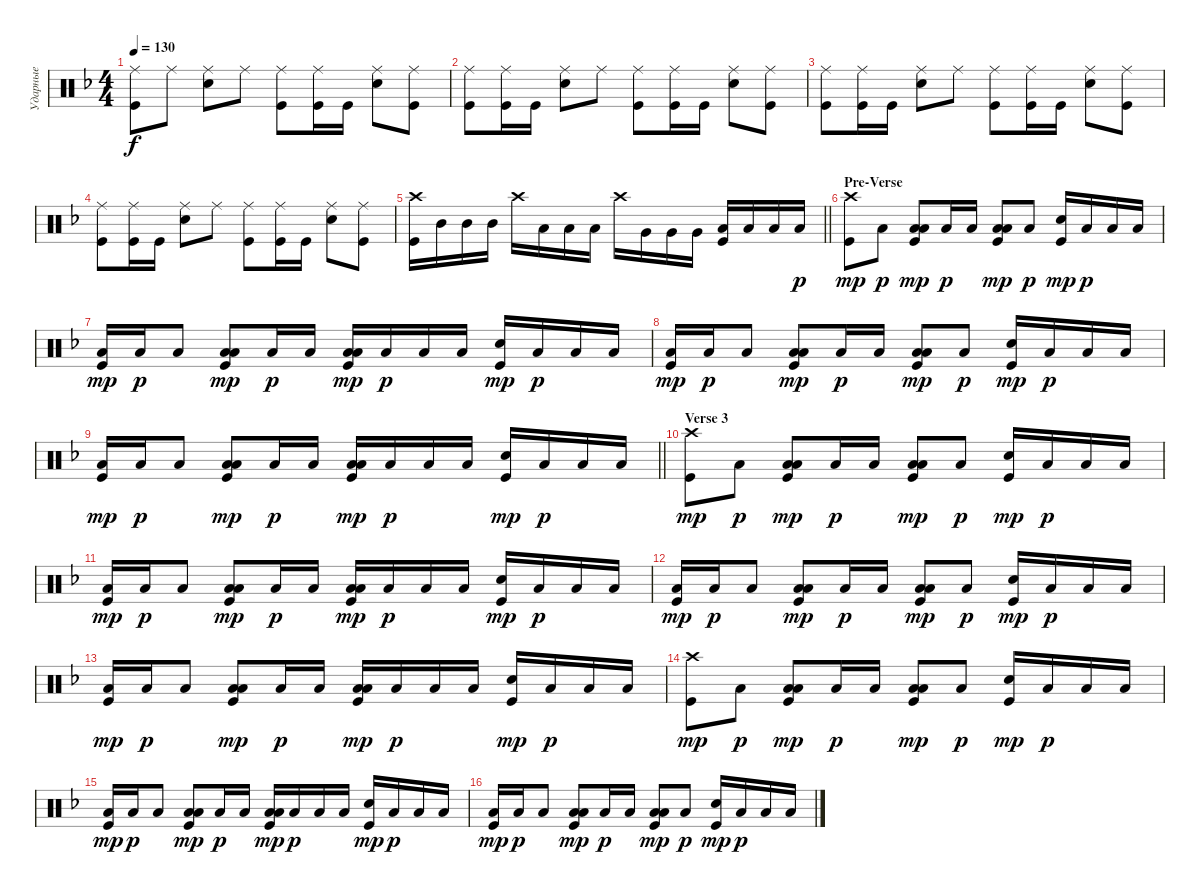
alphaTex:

\track ("Ударные" "Ударные") {instrument percussion}
\staff {score}
\articulation defaults
\ts (4 4)
\tempo 130
\clef neutral
\ks dminor
("Ride (middle)" "Kick (hit)").8{dy f} "Ride (middle)".8 ("Ride (middle)" "Snare (hit) 2").8 "Ride (middle)".8 ("Ride (middle)" "Kick (hit)").8 ("Ride (middle)" "Kick (hit)").16 "Kick (hit)".16 ("Ride (middle)" "Snare (hit) 2").8 ("Ride (middle)" "Kick (hit)").8 |
("Ride (middle)" "Kick (hit)").8 ("Ride (middle)" "Kick (hit)").16 "Kick (hit)".16 ("Ride (middle)" "Snare (hit) 2").8 "Ride (middle)".8 ("Ride (middle)" "Kick (hit)").8 ("Ride (middle)" "Kick (hit)").16 "Kick (hit)".16 ("Ride (middle)" "Snare (hit) 2").8 ("Ride (middle)" "Kick (hit)").8 |
("Ride (middle)" "Kick (hit)").8 ("Ride (middle)" "Kick (hit)").16 "Kick (hit)".16 ("Ride (middle)" "Snare (hit) 2").8 "Ride (middle)".8 ("Ride (middle)" "Kick (hit)").8 ("Ride (middle)" "Kick (hit)").16 "Kick (hit)".16 ("Ride (middle)" "Snare (hit) 2").8 ("Ride (middle)" "Kick (hit)").8 |
("Ride (middle)" "Kick (hit)").8 ("Ride (middle)" "Kick (hit)").16 "Kick (hit)".16 ("Ride (middle)" "Snare (hit) 2").8 "Ride (middle)".8 ("Ride (middle)" "Kick (hit)").8 ("Ride (middle)" "Kick (hit)").16 "Kick (hit)".16 ("Ride (middle)" "Snare (hit) 2").8 ("Ride (middle)" "Kick (hit)").8 |
\barLineRight lightlight
("Kick (hit)" "Crash high (hit)").16 "Mid Tom (hit)".16 "Mid Tom (hit)".16 "Mid Tom (hit)".16 "Crash high (hit)".16 "Low Tom (hit)".16 "Low Tom (hit)".16 "Low Tom (hit)".16 "Crash high (hit)".16 "Very Low Tom (hit)".16 "Very Low Tom (hit)".16 "Very Low Tom (hit)".16 ("Low Floor Tom (hit)" "Kick (hit)").16 "Low Floor Tom (hit)".16 "Low Floor Tom (hit)".16 "Low Floor Tom (hit)".16{dy p} |
\section ("" "Pre-Verse")
("Kick (hit)" "Crash high (hit)").8{dy mp} "Low Tom (hit)".8{dy p} ("Low Tom (hit)" "Kick (hit)" "Low Tom (hit)").8{bd 240 dy mp} "Low Tom (hit)".16{dy p} "Low Tom (hit)".16 ("Low Tom (hit)" "Kick (hit)" "Low Tom (hit)").8{bd 240 dy mp} "Low Tom (hit)".8{dy p} ("Kick (hit)" "Snare (hit) 2").16{dy mp} "Low Tom (hit)".16{dy p} "Low Tom (hit)".16 "Low Tom (hit)".16 |
("Low Tom (hit)" "Kick (hit)").16{dy mp} "Low Tom (hit)".16{dy p} "Low Tom (hit)".8{bd 240} ("Low Tom (hit)" "Kick (hit)" "Low Tom (hit)").8{bd 240 dy mp} "Low Tom (hit)".16{dy p} "Low Tom (hit)".16 ("Low Tom (hit)" "Kick (hit)" "Low Tom (hit)").16{bd 240 dy mp} "Low Tom (hit)".16{dy p} "Low Tom (hit)".16 "Low Tom (hit)".16 ("Kick (hit)" "Snare (hit) 2").16{dy mp} "Low Tom (hit)".16{dy p} "Low Tom (hit)".16 "Low Tom (hit)".16 |
("Low Tom (hit)" "Kick (hit)").16{dy mp} "Low Tom (hit)".16{dy p} "Low Tom (hit)".8{bd 240} ("Low Tom (hit)" "Kick (hit)" "Low Tom (hit)").8{bd 240 dy mp} "Low Tom (hit)".16{dy p} "Low Tom (hit)".16 ("Low Tom (hit)" "Kick (hit)" "Low Tom (hit)").8{bd 240 dy mp} "Low Tom (hit)".8{dy p} ("Kick (hit)" "Snare (hit) 2").16{dy mp} "Low Tom (hit)".16{dy p} "Low Tom (hit)".16 "Low Tom (hit)".16 |
\barLineRight lightlight
("Low Tom (hit)" "Kick (hit)").16{dy mp} "Low Tom (hit)".16{dy p} "Low Tom (hit)".8{bd 240} ("Low Tom (hit)" "Kick (hit)" "Low Tom (hit)").8{bd 240 dy mp} "Low Tom (hit)".16{dy p} "Low Tom (hit)".16 ("Low Tom (hit)" "Kick (hit)" "Low Tom (hit)").16{bd 240 dy mp} "Low Tom (hit)".16{dy p} "Low Tom (hit)".16 "Low Tom (hit)".16 ("Kick (hit)" "Snare (hit) 2").16{dy mp} "Low Tom (hit)".16{dy p} "Low Tom (hit)".16 "Low Tom (hit)".16 |
\section ("" "Verse 3")
("Kick (hit)" "Crash high (hit)").8{dy mp} "Low Tom (hit)".8{dy p} ("Low Tom (hit)" "Kick (hit)" "Low Tom (hit)").8{bd 240 dy mp} "Low Tom (hit)".16{dy p} "Low Tom (hit)".16 ("Low Tom (hit)" "Kick (hit)" "Low Tom (hit)").8{bd 240 dy mp} "Low Tom (hit)".8{dy p} ("Kick (hit)" "Snare (hit) 2").16{dy mp} "Low Tom (hit)".16{dy p} "Low Tom (hit)".16 "Low Tom (hit)".16 |
("Low Tom (hit)" "Kick (hit)").16{dy mp} "Low Tom (hit)".16{dy p} "Low Tom (hit)".8{bd 240} ("Low Tom (hit)" "Kick (hit)" "Low Tom (hit)").8{bd 240 dy mp} "Low Tom (hit)".16{dy p} "Low Tom (hit)".16 ("Low Tom (hit)" "Kick (hit)" "Low Tom (hit)").16{bd 240 dy mp} "Low Tom (hit)".16{dy p} "Low Tom (hit)".16 "Low Tom (hit)".16 ("Kick (hit)" "Snare (hit) 2").16{dy mp} "Low Tom (hit)".16{dy p} "Low Tom (hit)".16 "Low Tom (hit)".16 |
("Low Tom (hit)" "Kick (hit)").16{dy mp} "Low Tom (hit)".16{dy p} "Low Tom (hit)".8{bd 240} ("Low Tom (hit)" "Kick (hit)" "Low Tom (hit)").8{bd 240 dy mp} "Low Tom (hit)".16{dy p} "Low Tom (hit)".16 ("Low Tom (hit)" "Kick (hit)" "Low Tom (hit)").8{bd 240 dy mp} "Low Tom (hit)".8{dy p} ("Kick (hit)" "Snare (hit) 2").16{dy mp} "Low Tom (hit)".16{dy p} "Low Tom (hit)".16 "Low Tom (hit)".16 |
("Low Tom (hit)" "Kick (hit)").16{dy mp} "Low Tom (hit)".16{dy p} "Low Tom (hit)".8{bd 240} ("Low Tom (hit)" "Kick (hit)" "Low Tom (hit)").8{bd 240 dy mp} "Low Tom (hit)".16{dy p} "Low Tom (hit)".16 ("Low Tom (hit)" "Kick (hit)" "Low Tom (hit)").16{bd 240 dy mp} "Low Tom (hit)".16{dy p} "Low Tom (hit)".16 "Low Tom (hit)".16 ("Kick (hit)" "Snare (hit) 2").16{dy mp} "Low Tom (hit)".16{dy p} "Low Tom (hit)".16 "Low Tom (hit)".16 |
("Kick (hit)" "Crash high (hit)").8{dy mp} "Low Tom (hit)".8{dy p} ("Low Tom (hit)" "Kick (hit)" "Low Tom (hit)").8{bd 240 dy mp} "Low Tom (hit)".16{dy p} "Low Tom (hit)".16 ("Low Tom (hit)" "Kick (hit)" "Low Tom (hit)").8{bd 240 dy mp} "Low Tom (hit)".8{dy p} ("Kick (hit)" "Snare (hit) 2").16{dy mp} "Low Tom (hit)".16{dy p} "Low Tom (hit)".16 "Low Tom (hit)".16 |
("Low Tom (hit)" "Kick (hit)").16{dy mp} "Low Tom (hit)".16{dy p} "Low Tom (hit)".8{bd 240} ("Low Tom (hit)" "Kick (hit)" "Low Tom (hit)").8{bd 240 dy mp} "Low Tom (hit)".16{dy p} "Low Tom (hit)".16 ("Low Tom (hit)" "Kick (hit)" "Low Tom (hit)").16{bd 240 dy mp} "Low Tom (hit)".16{dy p} "Low Tom (hit)".16 "Low Tom (hit)".16 ("Kick (hit)" "Snare (hit) 2").16{dy mp} "Low Tom (hit)".16{dy p} "Low Tom (hit)".16 "Low Tom (hit)".16 |
("Low Tom (hit)" "Kick (hit)").16{dy mp} "Low Tom (hit)".16{dy p} "Low Tom (hit)".8{bd 240} ("Low Tom (hit)" "Kick (hit)" "Low Tom (hit)").8{bd 240 dy mp} "Low Tom (hit)".16{dy p} "Low Tom (hit)".16 ("Low Tom (hit)" "Kick (hit)" "Low Tom (hit)").8{bd 240 dy mp} "Low Tom (hit)".8{dy p} ("Kick (hit)" "Snare (hit) 2").16{dy mp} "Low Tom (hit)".16{dy p} "Low Tom (hit)".16 "Low Tom (hit)".16
